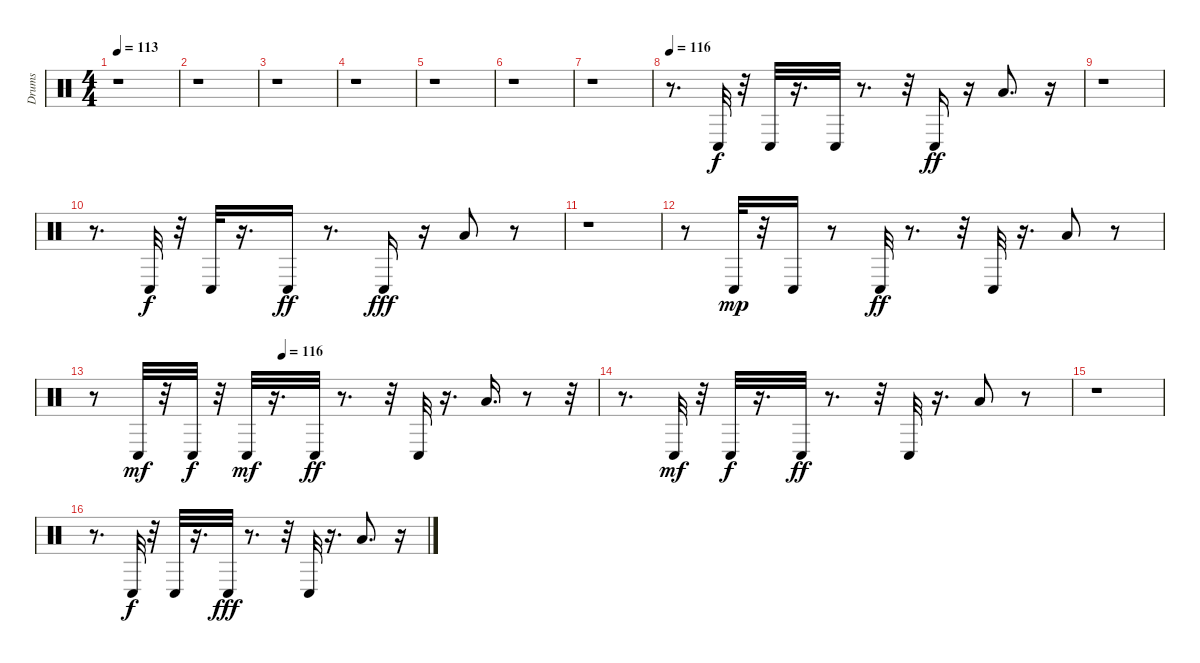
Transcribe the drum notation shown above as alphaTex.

\track ("Drums" "Drums") {instrument percussion}
\staff {score}
\articulation defaults
\ts (4 4)
\tempo 113
\clef neutral
\ks c
r.1{dy fff} |
r.1 |
r.1 |
r.1 |
r.1 |
r.1 |
r.1 |
\tempo 116
r.8{d} "Conga low (hit)".32{dy f} r.32 "Conga low (hit)".32 r.16{d} "Conga low (hit)".32 r.8{d} r.32 "Conga low (hit)".16{dy ff} r.16 "Low Tom (hit)".8{d} r.16 |
r.1 |
r.8{d} "Conga low (hit)".32{dy f} r.32 "Conga low (hit)".32 r.16{d} "Conga low (hit)".16{dy ff} r.8{d} "Conga low (hit)".16{dy fff} r.16 "Low Tom (hit)".8 r.8 |
r.1 |
r.8 "Conga low (hit)".32{dy mp} r.32 "Conga low (hit)".16 r.8 "Conga low (hit)".32{dy ff} r.8{d} r.32 "Conga low (hit)".32 r.16{d} "Low Tom (hit)".8 r.8 |
\tempo (116 0.375)
r.8 "Conga low (hit)".32{dy mf} r.32 "Conga low (hit)".32{dy f} r.32 "Conga low (hit)".32{dy mf} r.16{d} "Conga low (hit)".32{dy ff} r.8{d} r.32 "Conga low (hit)".32 r.16{d} "Low Tom (hit)".16{d} r.8 r.32 |
r.8{d} "Conga low (hit)".32{dy mf} r.32 "Conga low (hit)".32{dy f} r.16{d} "Conga low (hit)".32{dy ff} r.8{d} r.32 "Conga low (hit)".32 r.16{d} "Low Tom (hit)".8 r.8 |
r.1 |
r.8{d} "Conga low (hit)".32{dy f} r.32 "Conga low (hit)".32 r.16{d} "Conga low (hit)".32{dy fff} r.8{d} r.32 "Conga low (hit)".32 r.16{d} "Low Tom (hit)".8{d} r.16
